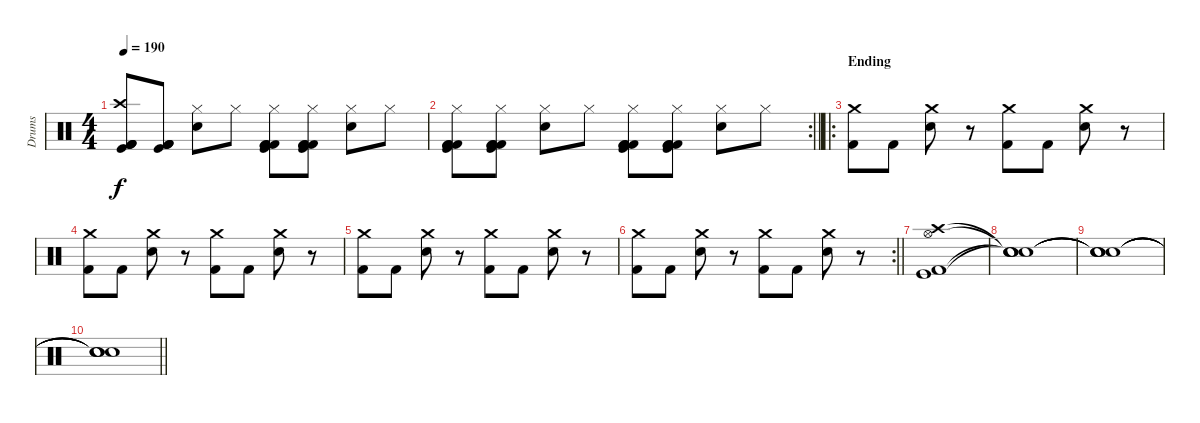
\track ("Drums" "Drums") {instrument percussion}
\staff {score}
\articulation defaults
\ts (4 4)
\tempo 190
\clef neutral
\ks c
("Kick (hit) 2" "Kick (hit) 2" "Crash high (hit)" "Kick (hit) 2" "Kick (hit)").8{dy f} ("Kick (hit) 2" "Kick (hit) 2" "Kick (hit) 2" "Kick (hit)").8 ("Hi-Hat (closed)" "Electric Snare (hit)").8 "Hi-Hat (closed)".8 ("Kick (hit) 2" "Kick (hit) 2" "Hi-Hat (closed)" "Kick (hit) 2" "Kick (hit)").8 ("Kick (hit) 2" "Kick (hit) 2" "Hi-Hat (closed)" "Kick (hit) 2" "Kick (hit)").8 ("Hi-Hat (closed)" "Electric Snare (hit)").8 "Hi-Hat (closed)".8 |
\rc 2
\barLineRight lightlight
("Kick (hit) 2" "Kick (hit) 2" "Hi-Hat (closed)" "Kick (hit) 2" "Kick (hit)").8 ("Kick (hit) 2" "Kick (hit) 2" "Hi-Hat (closed)" "Kick (hit) 2" "Kick (hit)").8 ("Hi-Hat (closed)" "Electric Snare (hit)").8 "Hi-Hat (closed)".8 ("Kick (hit) 2" "Kick (hit) 2" "Hi-Hat (closed)" "Kick (hit) 2" "Kick (hit)").8 ("Kick (hit) 2" "Kick (hit) 2" "Hi-Hat (closed)" "Kick (hit) 2" "Kick (hit)").8 ("Hi-Hat (closed)" "Electric Snare (hit)").8 "Hi-Hat (closed)".8 |
\ro
\section ("" "Ending")
("Crash medium (hit)" "Kick (hit) 2").8 "Kick (hit) 2".8 ("Crash medium (hit)" "Electric Snare (hit)").8 r.8 ("Crash medium (hit)" "Kick (hit) 2").8 "Kick (hit) 2".8 ("Crash medium (hit)" "Electric Snare (hit)").8 r.8 |
("Crash medium (hit)" "Kick (hit) 2").8 "Kick (hit) 2".8 ("Crash medium (hit)" "Electric Snare (hit)").8 r.8 ("Crash medium (hit)" "Kick (hit) 2").8 "Kick (hit) 2".8 ("Crash medium (hit)" "Electric Snare (hit)").8 r.8 |
("Crash medium (hit)" "Kick (hit) 2").8 "Kick (hit) 2".8 ("Crash medium (hit)" "Electric Snare (hit)").8 r.8 ("Crash medium (hit)" "Kick (hit) 2").8 "Kick (hit) 2".8 ("Crash medium (hit)" "Electric Snare (hit)").8 r.8 |
\rc 2
\barLineRight lightlight
("Crash medium (hit)" "Kick (hit) 2").8 "Kick (hit) 2".8 ("Crash medium (hit)" "Electric Snare (hit)").8 r.8 ("Crash medium (hit)" "Kick (hit) 2").8 "Kick (hit) 2".8 ("Crash medium (hit)" "Electric Snare (hit)").8 r.8 |
("Crash high (hit)" "Hi-Hat (open)" "Kick (hit) 2" "Kick (hit)").1 |
("Snare (hit)"{t} "Snare (hit)"{t} "Snare (hit)"{t} "Snare (hit)"{t}).1 |
("Snare (hit)"{t} "Snare (hit)"{t} "Snare (hit)"{t} "Snare (hit)"{t}).1 |
\barLineRight lightlight
("Snare (hit)"{t} "Snare (hit)"{t} "Snare (hit)"{t} "Snare (hit)"{t}).1
